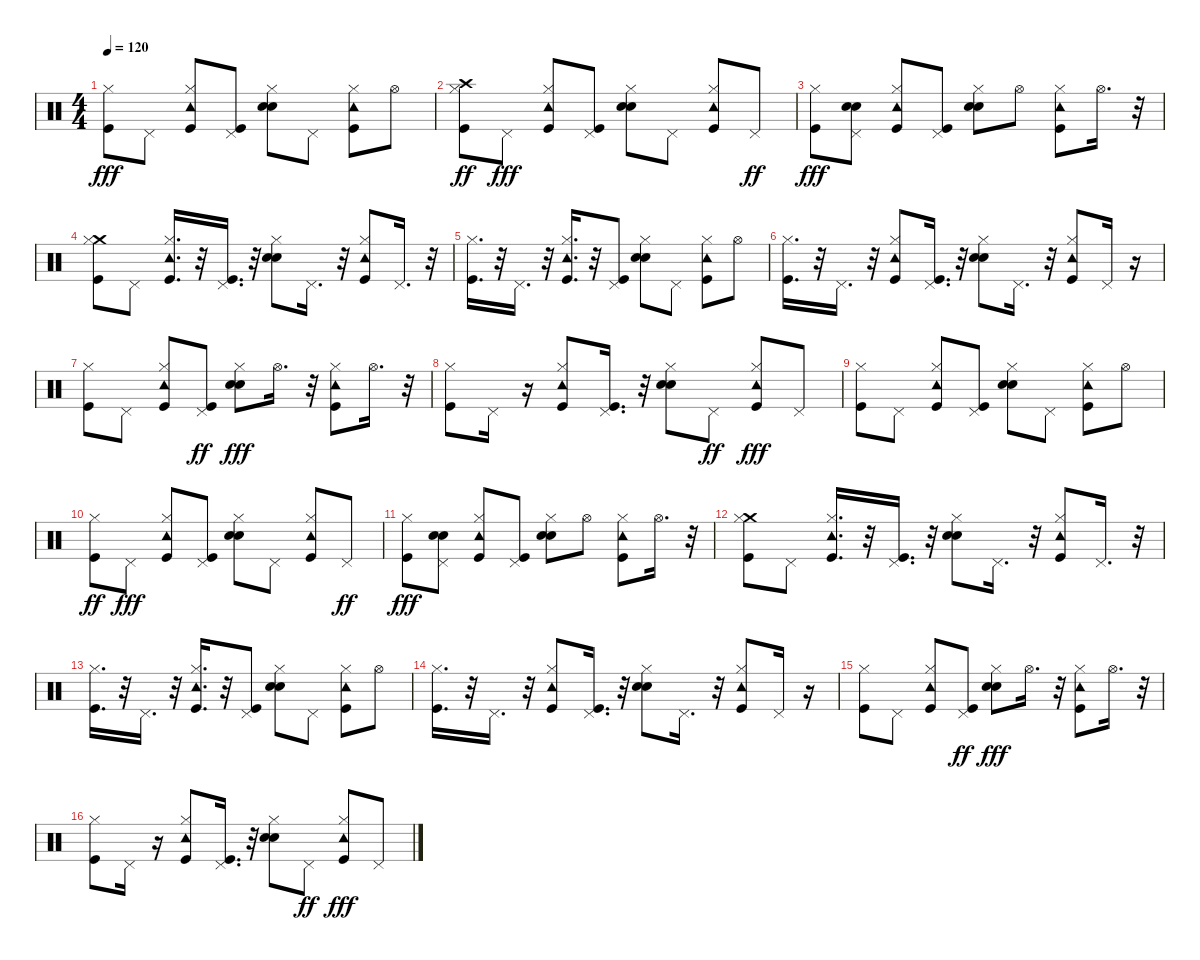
\track "" {instrument percussion}
\staff {score}
\articulation defaults
\ts (4 4)
\tempo 120
\clef neutral
\ks c
("Kick (hit)" "Hi-Hat (closed)").8{dy fff} "Pedal Hi-Hat (hit)".8 ("Tambourine (hit)" "Hi-Hat (closed)" "Kick (hit)").8 ("Kick (hit)" "Pedal Hi-Hat (hit)").8 ("Hi-Hat (closed)" "Hand Clap (hit)" "Snare (hit) 2").8 "Pedal Hi-Hat (hit)".8 ("Tambourine (hit)" "Hi-Hat (closed)" "Kick (hit)").8 "Hi-Hat (open)".8 |
("Crash high (hit)" "Kick (hit)" "Hi-Hat (closed)").8{dy ff} "Pedal Hi-Hat (hit)".8{dy fff} ("Kick (hit)" "Hi-Hat (closed)" "Tambourine (hit)").8 ("Kick (hit)" "Pedal Hi-Hat (hit)").8 ("Hand Clap (hit)" "Hi-Hat (closed)" "Snare (hit) 2").8 "Pedal Hi-Hat (hit)".8 ("Tambourine (hit)" "Kick (hit)" "Hi-Hat (closed)").8 "Pedal Hi-Hat (hit)".8{dy ff} |
("Hi-Hat (closed)" "Kick (hit)").8{dy fff} ("Pedal Hi-Hat (hit)" "Hand Clap (hit)" "Snare (hit) 2").8 ("Tambourine (hit)" "Hi-Hat (closed)" "Kick (hit)").8 ("Pedal Hi-Hat (hit)" "Kick (hit)").8 ("Hi-Hat (closed)" "Hand Clap (hit)" "Snare (hit) 2").8 "Hi-Hat (open)".8 ("Tambourine (hit)" "Hi-Hat (closed)" "Kick (hit)").8 "Hi-Hat (open)".16{d} r.32 |
("Crash medium (hit)" "Kick (hit)" "Hi-Hat (closed)").8 "Pedal Hi-Hat (hit)".8 ("Hi-Hat (closed)" "Kick (hit)" "Tambourine (hit)").16{d} r.32 ("Pedal Hi-Hat (hit)" "Kick (hit)").16{d} r.32 ("Hand Clap (hit)" "Hi-Hat (closed)" "Snare (hit) 2").8 "Pedal Hi-Hat (hit)".16{d} r.32 ("Hi-Hat (closed)" "Kick (hit)" "Tambourine (hit)").8 "Pedal Hi-Hat (hit)".16{d} r.32 |
("Hi-Hat (closed)" "Kick (hit)").16{d} r.32 "Pedal Hi-Hat (hit)".16{d} r.32 ("Hi-Hat (closed)" "Kick (hit)" "Tambourine (hit)").16{d} r.32 ("Pedal Hi-Hat (hit)" "Kick (hit)").8 ("Hi-Hat (closed)" "Hand Clap (hit)" "Snare (hit) 2").8 "Pedal Hi-Hat (hit)".8 ("Hi-Hat (closed)" "Kick (hit)" "Tambourine (hit)").8 "Hi-Hat (open)".8 |
("Hi-Hat (closed)" "Kick (hit)").16{d} r.32 "Pedal Hi-Hat (hit)".16{d} r.32 ("Tambourine (hit)" "Kick (hit)" "Hi-Hat (closed)").8 ("Pedal Hi-Hat (hit)" "Kick (hit)").16{d} r.32 ("Hi-Hat (closed)" "Hand Clap (hit)" "Snare (hit) 2").8 "Pedal Hi-Hat (hit)".16{d} r.32 ("Tambourine (hit)" "Hi-Hat (closed)" "Kick (hit)").8 "Pedal Hi-Hat (hit)".16 r.16 |
("Kick (hit)" "Hi-Hat (closed)").8 "Pedal Hi-Hat (hit)".8 ("Tambourine (hit)" "Hi-Hat (closed)" "Kick (hit)").8 ("Kick (hit)" "Pedal Hi-Hat (hit)").8{dy ff} ("Hi-Hat (closed)" "Hand Clap (hit)" "Snare (hit) 2").8{dy fff} "Hi-Hat (open)".16{d} r.32 ("Hi-Hat (closed)" "Kick (hit)" "Tambourine (hit)").8 "Hi-Hat (open)".16{d} r.32 |
("Kick (hit)" "Hi-Hat (closed)").8 "Pedal Hi-Hat (hit)".16 r.16 ("Kick (hit)" "Hi-Hat (closed)" "Tambourine (hit)").8 ("Kick (hit)" "Pedal Hi-Hat (hit)").16{d} r.32 ("Hand Clap (hit)" "Hi-Hat (closed)" "Snare (hit) 2").8 "Pedal Hi-Hat (hit)".8{dy ff} ("Hi-Hat (closed)" "Kick (hit)" "Tambourine (hit)").8{dy fff} "Pedal Hi-Hat (hit)".8 |
("Kick (hit)" "Hi-Hat (closed)").8 "Pedal Hi-Hat (hit)".8 ("Tambourine (hit)" "Hi-Hat (closed)" "Kick (hit)").8 ("Kick (hit)" "Pedal Hi-Hat (hit)").8 ("Hi-Hat (closed)" "Hand Clap (hit)" "Snare (hit) 2").8 "Pedal Hi-Hat (hit)".8 ("Tambourine (hit)" "Hi-Hat (closed)" "Kick (hit)").8 "Hi-Hat (open)".8 |
("Kick (hit)" "Hi-Hat (closed)").8{dy ff} "Pedal Hi-Hat (hit)".8{dy fff} ("Kick (hit)" "Hi-Hat (closed)" "Tambourine (hit)").8 ("Kick (hit)" "Pedal Hi-Hat (hit)").8 ("Hand Clap (hit)" "Hi-Hat (closed)" "Snare (hit) 2").8 "Pedal Hi-Hat (hit)".8 ("Tambourine (hit)" "Kick (hit)" "Hi-Hat (closed)").8 "Pedal Hi-Hat (hit)".8{dy ff} |
("Hi-Hat (closed)" "Kick (hit)").8{dy fff} ("Pedal Hi-Hat (hit)" "Hand Clap (hit)" "Snare (hit) 2").8 ("Tambourine (hit)" "Hi-Hat (closed)" "Kick (hit)").8 ("Pedal Hi-Hat (hit)" "Kick (hit)").8 ("Hi-Hat (closed)" "Hand Clap (hit)" "Snare (hit) 2").8 "Hi-Hat (open)".8 ("Tambourine (hit)" "Hi-Hat (closed)" "Kick (hit)").8 "Hi-Hat (open)".16{d} r.32 |
("Crash medium (hit)" "Kick (hit)" "Hi-Hat (closed)").8 "Pedal Hi-Hat (hit)".8 ("Hi-Hat (closed)" "Kick (hit)" "Tambourine (hit)").16{d} r.32 ("Pedal Hi-Hat (hit)" "Kick (hit)").16{d} r.32 ("Hand Clap (hit)" "Hi-Hat (closed)" "Snare (hit) 2").8 "Pedal Hi-Hat (hit)".16{d} r.32 ("Hi-Hat (closed)" "Kick (hit)" "Tambourine (hit)").8 "Pedal Hi-Hat (hit)".16{d} r.32 |
("Hi-Hat (closed)" "Kick (hit)").16{d} r.32 "Pedal Hi-Hat (hit)".16{d} r.32 ("Hi-Hat (closed)" "Kick (hit)" "Tambourine (hit)").16{d} r.32 ("Pedal Hi-Hat (hit)" "Kick (hit)").8 ("Hi-Hat (closed)" "Hand Clap (hit)" "Snare (hit) 2").8 "Pedal Hi-Hat (hit)".8 ("Hi-Hat (closed)" "Kick (hit)" "Tambourine (hit)").8 "Hi-Hat (open)".8 |
("Hi-Hat (closed)" "Kick (hit)").16{d} r.32 "Pedal Hi-Hat (hit)".16{d} r.32 ("Tambourine (hit)" "Kick (hit)" "Hi-Hat (closed)").8 ("Pedal Hi-Hat (hit)" "Kick (hit)").16{d} r.32 ("Hi-Hat (closed)" "Hand Clap (hit)" "Snare (hit) 2").8 "Pedal Hi-Hat (hit)".16{d} r.32 ("Tambourine (hit)" "Hi-Hat (closed)" "Kick (hit)").8 "Pedal Hi-Hat (hit)".16 r.16 |
("Kick (hit)" "Hi-Hat (closed)").8 "Pedal Hi-Hat (hit)".8 ("Tambourine (hit)" "Hi-Hat (closed)" "Kick (hit)").8 ("Kick (hit)" "Pedal Hi-Hat (hit)").8{dy ff} ("Hi-Hat (closed)" "Hand Clap (hit)" "Snare (hit) 2").8{dy fff} "Hi-Hat (open)".16{d} r.32 ("Hi-Hat (closed)" "Kick (hit)" "Tambourine (hit)").8 "Hi-Hat (open)".16{d} r.32 |
("Kick (hit)" "Hi-Hat (closed)").8 "Pedal Hi-Hat (hit)".16 r.16 ("Kick (hit)" "Hi-Hat (closed)" "Tambourine (hit)").8 ("Kick (hit)" "Pedal Hi-Hat (hit)").16{d} r.32 ("Hand Clap (hit)" "Hi-Hat (closed)" "Snare (hit) 2").8 "Pedal Hi-Hat (hit)".8{dy ff} ("Hi-Hat (closed)" "Kick (hit)" "Tambourine (hit)").8{dy fff} "Pedal Hi-Hat (hit)".8
